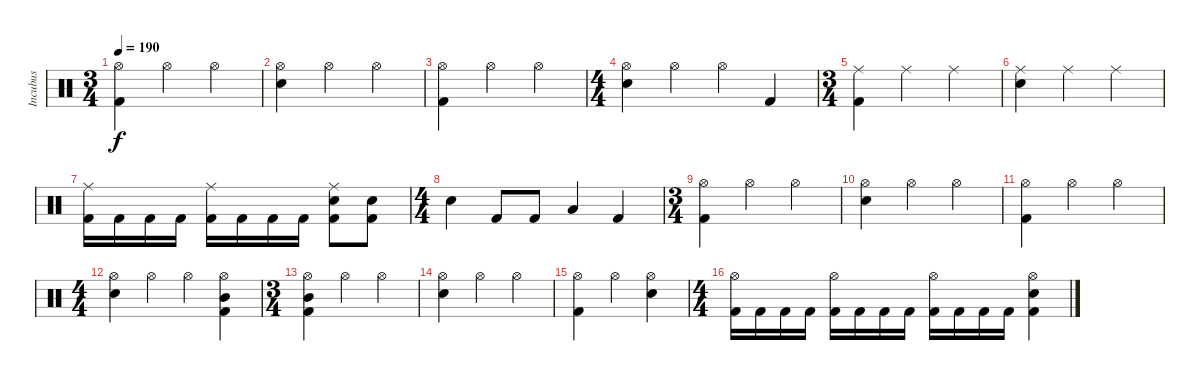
\track ("Incubus" "Incubus") {instrument percussion}
\staff {score}
\articulation defaults
\ts (3 4)
\tempo 190
\clef neutral
\ks c
("Hi-Hat (open)" "Kick (hit) 2").4{dy f} "Hi-Hat (open)".4 "Hi-Hat (open)".4 |
("Hi-Hat (open)" "Electric Snare (hit)").4 "Hi-Hat (open)".4 "Hi-Hat (open)".4 |
("Hi-Hat (open)" "Kick (hit) 2").4 "Hi-Hat (open)".4 "Hi-Hat (open)".4 |
\ts (4 4)
("Hi-Hat (open)" "Electric Snare (hit)").4 "Hi-Hat (open)".4 "Hi-Hat (open)".4 "Kick (hit) 2".4 |
\ts (3 4)
("Ride (middle)" "Kick (hit) 2").4 "Ride (middle)".4 "Ride (middle)".4 |
("Ride (middle)" "Electric Snare (hit)").4 "Ride (middle)".4 "Ride (middle)".4 |
("Ride (middle)" "Kick (hit) 2").16 "Kick (hit) 2".16 "Kick (hit) 2".16 "Kick (hit) 2".16 ("Ride (middle)" "Kick (hit) 2").16 "Kick (hit) 2".16 "Kick (hit) 2".16 "Kick (hit) 2".16 ("Ride (middle)" "Electric Snare (hit)" "Kick (hit) 2").8 ("Electric Snare (hit)" "Kick (hit) 2").8 |
\ts (4 4)
"Electric Snare (hit)".4 "Kick (hit) 2".8 "Kick (hit) 2".8 "Low Tom (hit)".4 "Kick (hit) 2".4 |
\ts (3 4)
("Hi-Hat (open)" "Kick (hit) 2").4 "Hi-Hat (open)".4 "Hi-Hat (open)".4 |
("Hi-Hat (open)" "Electric Snare (hit)").4 "Hi-Hat (open)".4 "Hi-Hat (open)".4 |
("Hi-Hat (open)" "Kick (hit) 2").4 "Hi-Hat (open)".4 "Hi-Hat (open)".4 |
\ts (4 4)
("Hi-Hat (open)" "Electric Snare (hit)").4 "Hi-Hat (open)".4 "Hi-Hat (open)".4 ("Hi-Hat (open)" "Mid Tom (hit)" "Kick (hit) 2").4 |
\ts (3 4)
("Hi-Hat (open)" "Mid Tom (hit)" "Kick (hit) 2").4 "Hi-Hat (open)".4 "Hi-Hat (open)".4 |
("Hi-Hat (open)" "Electric Snare (hit)").4 "Hi-Hat (open)".4 "Hi-Hat (open)".4 |
("Hi-Hat (open)" "Kick (hit) 2").4 "Hi-Hat (open)".4 ("Hi-Hat (open)" "Electric Snare (hit)").4 |
\ts (4 4)
("Hi-Hat (open)" "Kick (hit) 2").16 "Kick (hit) 2".16 "Kick (hit) 2".16 "Kick (hit) 2".16 ("Hi-Hat (open)" "Kick (hit) 2").16 "Kick (hit) 2".16 "Kick (hit) 2".16 "Kick (hit) 2".16 ("Hi-Hat (open)" "Kick (hit) 2").16 "Kick (hit) 2".16 "Kick (hit) 2".16 "Kick (hit) 2".16 ("Hi-Hat (open)" "Electric Snare (hit)" "Kick (hit) 2").4
